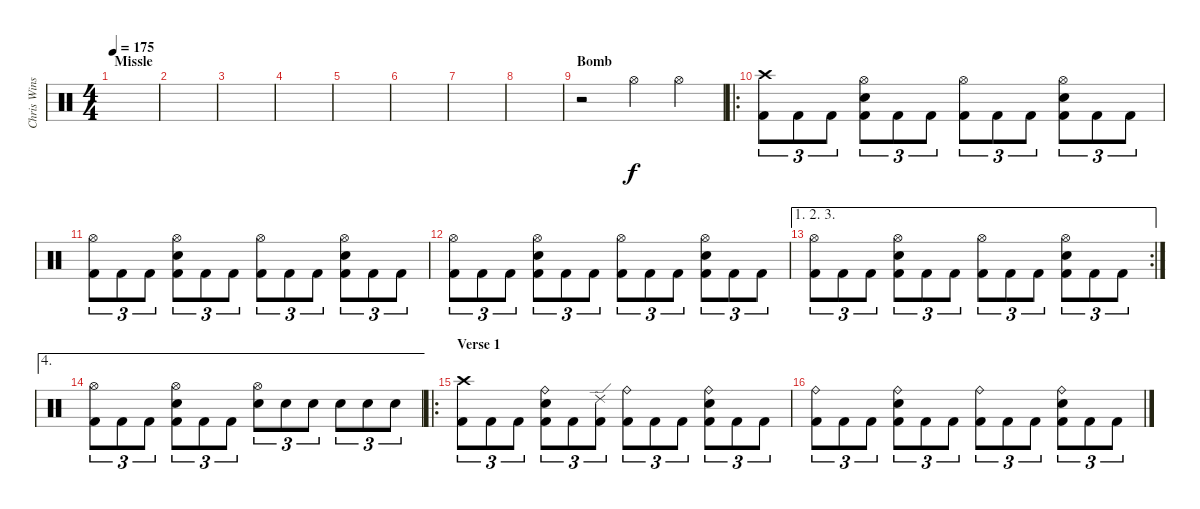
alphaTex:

\track ("Chris Winship (Drums)" "Chris Wins") {instrument percussion}
\staff {score}
\articulation defaults
\ts (4 4)
\section ("" "Missle")
\tempo 175
\clef neutral
\ks c
|
|
|
|
|
|
|
|
\section ("" "Bomb")
r.2 "Hi-Hat (open)".4 "Hi-Hat (open)".4 |
\ro
("Crash high (hit)" "Kick (hit) 2").8{tu (3 2)} "Kick (hit) 2".8{tu (3 2)} "Kick (hit) 2".8{tu (3 2)} ("Hi-Hat (open)" "Snare (hit) 2" "Kick (hit) 2").8{tu (3 2)} "Kick (hit) 2".8{tu (3 2)} "Kick (hit) 2".8{tu (3 2)} ("Hi-Hat (open)" "Kick (hit) 2").8{tu (3 2)} "Kick (hit) 2".8{tu (3 2)} "Kick (hit) 2".8{tu (3 2)} ("Hi-Hat (open)" "Snare (hit) 2" "Kick (hit) 2").8{tu (3 2)} "Kick (hit) 2".8{tu (3 2)} "Kick (hit) 2".8{tu (3 2)} |
("Hi-Hat (open)" "Kick (hit) 2").8{tu (3 2)} "Kick (hit) 2".8{tu (3 2)} "Kick (hit) 2".8{tu (3 2)} ("Hi-Hat (open)" "Snare (hit) 2" "Kick (hit) 2").8{tu (3 2)} "Kick (hit) 2".8{tu (3 2)} "Kick (hit) 2".8{tu (3 2)} ("Hi-Hat (open)" "Kick (hit) 2").8{tu (3 2)} "Kick (hit) 2".8{tu (3 2)} "Kick (hit) 2".8{tu (3 2)} ("Hi-Hat (open)" "Snare (hit) 2" "Kick (hit) 2").8{tu (3 2)} "Kick (hit) 2".8{tu (3 2)} "Kick (hit) 2".8{tu (3 2)} |
("Hi-Hat (open)" "Kick (hit) 2").8{tu (3 2)} "Kick (hit) 2".8{tu (3 2)} "Kick (hit) 2".8{tu (3 2)} ("Hi-Hat (open)" "Snare (hit) 2" "Kick (hit) 2").8{tu (3 2)} "Kick (hit) 2".8{tu (3 2)} "Kick (hit) 2".8{tu (3 2)} ("Hi-Hat (open)" "Kick (hit) 2").8{tu (3 2)} "Kick (hit) 2".8{tu (3 2)} "Kick (hit) 2".8{tu (3 2)} ("Hi-Hat (open)" "Snare (hit) 2" "Kick (hit) 2").8{tu (3 2)} "Kick (hit) 2".8{tu (3 2)} "Kick (hit) 2".8{tu (3 2)} |
\ae (1 2 3)
\rc 2
("Hi-Hat (open)" "Kick (hit) 2").8{tu (3 2)} "Kick (hit) 2".8{tu (3 2)} "Kick (hit) 2".8{tu (3 2)} ("Hi-Hat (open)" "Snare (hit) 2" "Kick (hit) 2").8{tu (3 2)} "Kick (hit) 2".8{tu (3 2)} "Kick (hit) 2".8{tu (3 2)} ("Hi-Hat (open)" "Kick (hit) 2").8{tu (3 2)} "Kick (hit) 2".8{tu (3 2)} "Kick (hit) 2".8{tu (3 2)} ("Hi-Hat (open)" "Snare (hit) 2" "Kick (hit) 2").8{tu (3 2)} "Kick (hit) 2".8{tu (3 2)} "Kick (hit) 2".8{tu (3 2)} |
\ae 4
("Hi-Hat (open)" "Kick (hit) 2").8{tu (3 2)} "Kick (hit) 2".8{tu (3 2)} "Kick (hit) 2".8{tu (3 2)} ("Hi-Hat (open)" "Snare (hit) 2" "Kick (hit) 2").8{tu (3 2)} "Kick (hit) 2".8{tu (3 2)} "Kick (hit) 2".8{tu (3 2)} ("Hi-Hat (open)" "Snare (hit) 2").8{tu (3 2)} "Snare (hit) 2".8{tu (3 2)} "Snare (hit) 2".8{tu (3 2)} "Snare (hit) 2".8{tu (3 2)} "Snare (hit) 2".8{tu (3 2)} "Snare (hit) 2".8{tu (3 2)} |
\ro
\section ("" "Verse 1")
("Crash high (hit)" "Kick (hit) 2").8{tu (3 2)} "Kick (hit) 2".8{tu (3 2)} "Kick (hit) 2".8{tu (3 2)} ("Ride (bell)" "Snare (hit) 2" "Kick (hit) 2").8{tu (3 2)} "Kick (hit) 2".8{tu (3 2)} ("Ride (edge) 2" "Kick (hit) 2").8{tu (3 2)} ("Ride (bell)" "Kick (hit) 2").8{tu (3 2)} "Kick (hit) 2".8{tu (3 2)} "Kick (hit) 2".8{tu (3 2)} ("Ride (bell)" "Snare (hit) 2" "Kick (hit) 2").8{tu (3 2)} "Kick (hit) 2".8{tu (3 2)} "Kick (hit) 2".8{tu (3 2)} |
("Ride (bell)" "Kick (hit) 2").8{tu (3 2)} "Kick (hit) 2".8{tu (3 2)} "Kick (hit) 2".8{tu (3 2)} ("Ride (bell)" "Snare (hit) 2" "Kick (hit) 2").8{tu (3 2)} "Kick (hit) 2".8{tu (3 2)} "Kick (hit) 2".8{tu (3 2)} ("Ride (bell)" "Kick (hit) 2").8{tu (3 2)} "Kick (hit) 2".8{tu (3 2)} "Kick (hit) 2".8{tu (3 2)} ("Ride (bell)" "Snare (hit) 2" "Kick (hit) 2").8{tu (3 2)} "Kick (hit) 2".8{tu (3 2)} "Kick (hit) 2".8{tu (3 2)}
